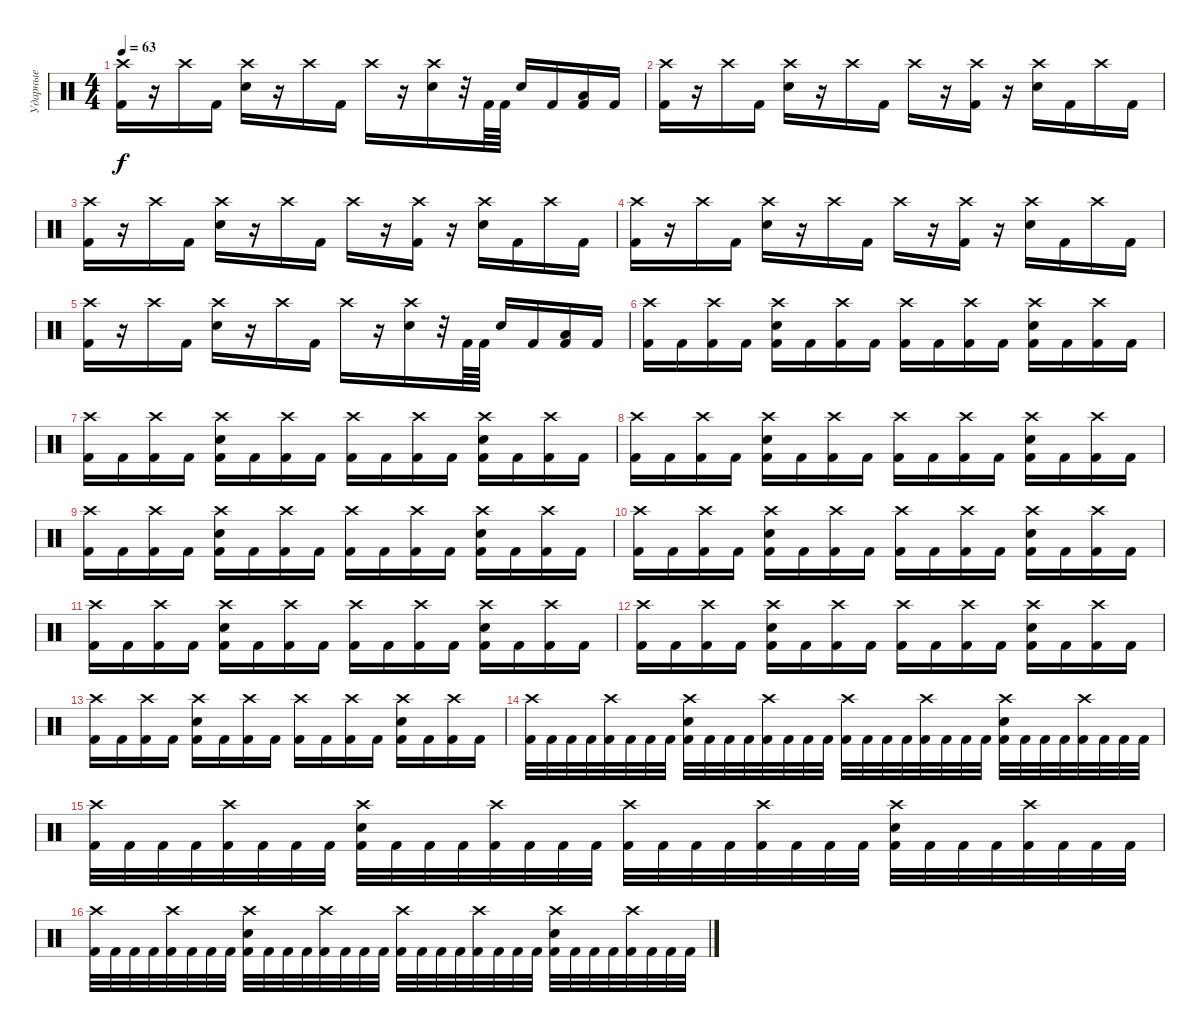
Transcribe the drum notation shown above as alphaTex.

\track ("Ударные" "Ударные") {instrument percussion}
\staff {score}
\articulation defaults
\ts (4 4)
\tempo 63
\clef neutral
\ks c
("Crash high (hit)" "Kick (hit) 2").16{dy f} r.16 "Crash high (hit)".16 "Kick (hit) 2".16 ("Crash high (hit)" "Electric Snare (hit)").16 r.16 "Crash high (hit)".16 "Kick (hit) 2".16 "Crash high (hit)".16 r.16 ("Crash high (hit)" "Electric Snare (hit)").16 r.32 "Kick (hit) 2".64 "Kick (hit) 2".64 "Electric Snare (hit)".16 "Kick (hit) 2".16 ("Low Floor Tom (hit)" "Kick (hit) 2").16 "Kick (hit) 2".16 |
("Crash high (hit)" "Kick (hit) 2").16 r.16 "Crash high (hit)".16 "Kick (hit) 2".16 ("Crash high (hit)" "Electric Snare (hit)").16 r.16 "Crash high (hit)".16 "Kick (hit) 2".16 "Crash high (hit)".16 r.16 ("Crash high (hit)" "Kick (hit) 2").16 r.16 ("Crash high (hit)" "Electric Snare (hit)").16 "Kick (hit) 2".16 "Crash high (hit)".16 "Kick (hit) 2".16 |
("Crash high (hit)" "Kick (hit) 2").16 r.16 "Crash high (hit)".16 "Kick (hit) 2".16 ("Crash high (hit)" "Electric Snare (hit)").16 r.16 "Crash high (hit)".16 "Kick (hit) 2".16 "Crash high (hit)".16 r.16 ("Crash high (hit)" "Kick (hit) 2").16 r.16 ("Crash high (hit)" "Electric Snare (hit)").16 "Kick (hit) 2".16 "Crash high (hit)".16 "Kick (hit) 2".16 |
("Crash high (hit)" "Kick (hit) 2").16 r.16 "Crash high (hit)".16 "Kick (hit) 2".16 ("Crash high (hit)" "Electric Snare (hit)").16 r.16 "Crash high (hit)".16 "Kick (hit) 2".16 "Crash high (hit)".16 r.16 ("Crash high (hit)" "Kick (hit) 2").16 r.16 ("Crash high (hit)" "Electric Snare (hit)").16 "Kick (hit) 2".16 "Crash high (hit)".16 "Kick (hit) 2".16 |
("Crash high (hit)" "Kick (hit) 2").16 r.16 "Crash high (hit)".16 "Kick (hit) 2".16 ("Crash high (hit)" "Electric Snare (hit)").16 r.16 "Crash high (hit)".16 "Kick (hit) 2".16 "Crash high (hit)".16 r.16 ("Crash high (hit)" "Electric Snare (hit)").16 r.32 "Kick (hit) 2".64 "Kick (hit) 2".64 "Electric Snare (hit)".16 "Kick (hit) 2".16 ("Low Floor Tom (hit)" "Kick (hit) 2").16 "Kick (hit) 2".16 |
("Crash high (hit)" "Kick (hit) 2").16 "Kick (hit) 2".16 ("Crash high (hit)" "Kick (hit) 2").16 "Kick (hit) 2".16 ("Crash high (hit)" "Electric Snare (hit)" "Kick (hit) 2").16 "Kick (hit) 2".16 ("Crash high (hit)" "Kick (hit) 2").16 "Kick (hit) 2".16 ("Crash high (hit)" "Kick (hit) 2").16 "Kick (hit) 2".16 ("Crash high (hit)" "Kick (hit) 2").16 "Kick (hit) 2".16 ("Crash high (hit)" "Electric Snare (hit)" "Kick (hit) 2").16 "Kick (hit) 2".16 ("Crash high (hit)" "Kick (hit) 2").16 "Kick (hit) 2".16 |
("Crash high (hit)" "Kick (hit) 2").16 "Kick (hit) 2".16 ("Crash high (hit)" "Kick (hit) 2").16 "Kick (hit) 2".16 ("Crash high (hit)" "Electric Snare (hit)" "Kick (hit) 2").16 "Kick (hit) 2".16 ("Crash high (hit)" "Kick (hit) 2").16 "Kick (hit) 2".16 ("Crash high (hit)" "Kick (hit) 2").16 "Kick (hit) 2".16 ("Crash high (hit)" "Kick (hit) 2").16 "Kick (hit) 2".16 ("Crash high (hit)" "Electric Snare (hit)" "Kick (hit) 2").16 "Kick (hit) 2".16 ("Crash high (hit)" "Kick (hit) 2").16 "Kick (hit) 2".16 |
("Crash high (hit)" "Kick (hit) 2").16 "Kick (hit) 2".16 ("Crash high (hit)" "Kick (hit) 2").16 "Kick (hit) 2".16 ("Crash high (hit)" "Electric Snare (hit)" "Kick (hit) 2").16 "Kick (hit) 2".16 ("Crash high (hit)" "Kick (hit) 2").16 "Kick (hit) 2".16 ("Crash high (hit)" "Kick (hit) 2").16 "Kick (hit) 2".16 ("Crash high (hit)" "Kick (hit) 2").16 "Kick (hit) 2".16 ("Crash high (hit)" "Electric Snare (hit)" "Kick (hit) 2").16 "Kick (hit) 2".16 ("Crash high (hit)" "Kick (hit) 2").16 "Kick (hit) 2".16 |
("Crash high (hit)" "Kick (hit) 2").16 "Kick (hit) 2".16 ("Crash high (hit)" "Kick (hit) 2").16 "Kick (hit) 2".16 ("Crash high (hit)" "Electric Snare (hit)" "Kick (hit) 2").16 "Kick (hit) 2".16 ("Crash high (hit)" "Kick (hit) 2").16 "Kick (hit) 2".16 ("Crash high (hit)" "Kick (hit) 2").16 "Kick (hit) 2".16 ("Crash high (hit)" "Kick (hit) 2").16 "Kick (hit) 2".16 ("Crash high (hit)" "Electric Snare (hit)" "Kick (hit) 2").16 "Kick (hit) 2".16 ("Crash high (hit)" "Kick (hit) 2").16 "Kick (hit) 2".16 |
("Crash high (hit)" "Kick (hit) 2").16 "Kick (hit) 2".16 ("Crash high (hit)" "Kick (hit) 2").16 "Kick (hit) 2".16 ("Crash high (hit)" "Electric Snare (hit)" "Kick (hit) 2").16 "Kick (hit) 2".16 ("Crash high (hit)" "Kick (hit) 2").16 "Kick (hit) 2".16 ("Crash high (hit)" "Kick (hit) 2").16 "Kick (hit) 2".16 ("Crash high (hit)" "Kick (hit) 2").16 "Kick (hit) 2".16 ("Crash high (hit)" "Electric Snare (hit)" "Kick (hit) 2").16 "Kick (hit) 2".16 ("Crash high (hit)" "Kick (hit) 2").16 "Kick (hit) 2".16 |
("Crash high (hit)" "Kick (hit) 2").16 "Kick (hit) 2".16 ("Crash high (hit)" "Kick (hit) 2").16 "Kick (hit) 2".16 ("Crash high (hit)" "Electric Snare (hit)" "Kick (hit) 2").16 "Kick (hit) 2".16 ("Crash high (hit)" "Kick (hit) 2").16 "Kick (hit) 2".16 ("Crash high (hit)" "Kick (hit) 2").16 "Kick (hit) 2".16 ("Crash high (hit)" "Kick (hit) 2").16 "Kick (hit) 2".16 ("Crash high (hit)" "Electric Snare (hit)" "Kick (hit) 2").16 "Kick (hit) 2".16 ("Crash high (hit)" "Kick (hit) 2").16 "Kick (hit) 2".16 |
("Crash high (hit)" "Kick (hit) 2").16 "Kick (hit) 2".16 ("Crash high (hit)" "Kick (hit) 2").16 "Kick (hit) 2".16 ("Crash high (hit)" "Electric Snare (hit)" "Kick (hit) 2").16 "Kick (hit) 2".16 ("Crash high (hit)" "Kick (hit) 2").16 "Kick (hit) 2".16 ("Crash high (hit)" "Kick (hit) 2").16 "Kick (hit) 2".16 ("Crash high (hit)" "Kick (hit) 2").16 "Kick (hit) 2".16 ("Crash high (hit)" "Electric Snare (hit)" "Kick (hit) 2").16 "Kick (hit) 2".16 ("Crash high (hit)" "Kick (hit) 2").16 "Kick (hit) 2".16 |
("Crash high (hit)" "Kick (hit) 2").16 "Kick (hit) 2".16 ("Crash high (hit)" "Kick (hit) 2").16 "Kick (hit) 2".16 ("Crash high (hit)" "Electric Snare (hit)" "Kick (hit) 2").16 "Kick (hit) 2".16 ("Crash high (hit)" "Kick (hit) 2").16 "Kick (hit) 2".16 ("Crash high (hit)" "Kick (hit) 2").16 "Kick (hit) 2".16 ("Crash high (hit)" "Kick (hit) 2").16 "Kick (hit) 2".16 ("Crash high (hit)" "Electric Snare (hit)" "Kick (hit) 2").16 "Kick (hit) 2".16 ("Crash high (hit)" "Kick (hit) 2").16 "Kick (hit) 2".16 |
("Crash high (hit)" "Kick (hit) 2").32 "Kick (hit) 2".32 "Kick (hit) 2".32 "Kick (hit) 2".32 ("Crash high (hit)" "Kick (hit) 2").32 "Kick (hit) 2".32 "Kick (hit) 2".32 "Kick (hit) 2".32 ("Crash high (hit)" "Electric Snare (hit)" "Kick (hit) 2").32 "Kick (hit) 2".32 "Kick (hit) 2".32 "Kick (hit) 2".32 ("Crash high (hit)" "Kick (hit) 2").32 "Kick (hit) 2".32 "Kick (hit) 2".32 "Kick (hit) 2".32 ("Crash high (hit)" "Kick (hit) 2").32 "Kick (hit) 2".32 "Kick (hit) 2".32 "Kick (hit) 2".32 ("Crash high (hit)" "Kick (hit) 2").32 "Kick (hit) 2".32 "Kick (hit) 2".32 "Kick (hit) 2".32 ("Crash high (hit)" "Electric Snare (hit)" "Kick (hit) 2").32 "Kick (hit) 2".32 "Kick (hit) 2".32 "Kick (hit) 2".32 ("Crash high (hit)" "Kick (hit) 2").32 "Kick (hit) 2".32 "Kick (hit) 2".32 "Kick (hit) 2".32 |
("Crash high (hit)" "Kick (hit) 2").32 "Kick (hit) 2".32 "Kick (hit) 2".32 "Kick (hit) 2".32 ("Crash high (hit)" "Kick (hit) 2").32 "Kick (hit) 2".32 "Kick (hit) 2".32 "Kick (hit) 2".32 ("Crash high (hit)" "Electric Snare (hit)" "Kick (hit) 2").32 "Kick (hit) 2".32 "Kick (hit) 2".32 "Kick (hit) 2".32 ("Crash high (hit)" "Kick (hit) 2").32 "Kick (hit) 2".32 "Kick (hit) 2".32 "Kick (hit) 2".32 ("Crash high (hit)" "Kick (hit) 2").32 "Kick (hit) 2".32 "Kick (hit) 2".32 "Kick (hit) 2".32 ("Crash high (hit)" "Kick (hit) 2").32 "Kick (hit) 2".32 "Kick (hit) 2".32 "Kick (hit) 2".32 ("Crash high (hit)" "Electric Snare (hit)" "Kick (hit) 2").32 "Kick (hit) 2".32 "Kick (hit) 2".32 "Kick (hit) 2".32 ("Crash high (hit)" "Kick (hit) 2").32 "Kick (hit) 2".32 "Kick (hit) 2".32 "Kick (hit) 2".32 |
("Crash high (hit)" "Kick (hit) 2").32 "Kick (hit) 2".32 "Kick (hit) 2".32 "Kick (hit) 2".32 ("Crash high (hit)" "Kick (hit) 2").32 "Kick (hit) 2".32 "Kick (hit) 2".32 "Kick (hit) 2".32 ("Crash high (hit)" "Electric Snare (hit)" "Kick (hit) 2").32 "Kick (hit) 2".32 "Kick (hit) 2".32 "Kick (hit) 2".32 ("Crash high (hit)" "Kick (hit) 2").32 "Kick (hit) 2".32 "Kick (hit) 2".32 "Kick (hit) 2".32 ("Crash high (hit)" "Kick (hit) 2").32 "Kick (hit) 2".32 "Kick (hit) 2".32 "Kick (hit) 2".32 ("Crash high (hit)" "Kick (hit) 2").32 "Kick (hit) 2".32 "Kick (hit) 2".32 "Kick (hit) 2".32 ("Crash high (hit)" "Electric Snare (hit)" "Kick (hit) 2").32 "Kick (hit) 2".32 "Kick (hit) 2".32 "Kick (hit) 2".32 ("Crash high (hit)" "Kick (hit) 2").32 "Kick (hit) 2".32 "Kick (hit) 2".32 "Kick (hit) 2".32
